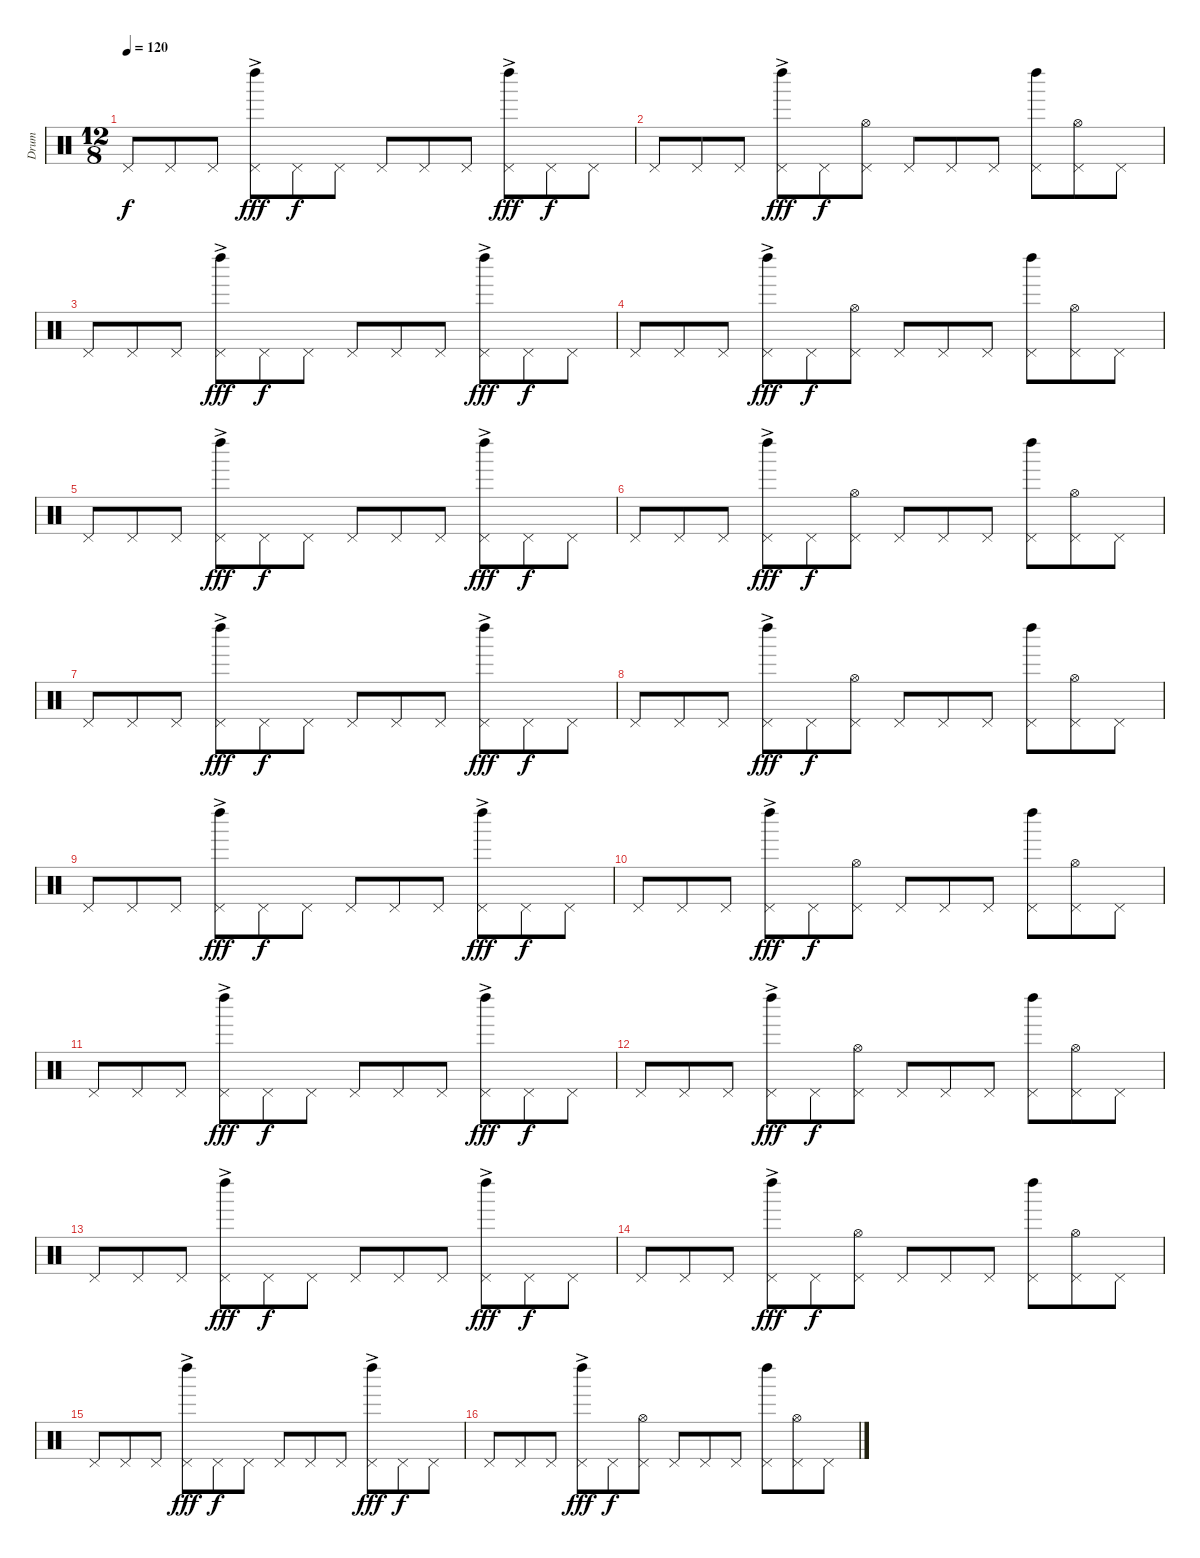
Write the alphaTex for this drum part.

\track ("Drum" "Drum") {instrument percussion}
\staff {score}
\articulation defaults
\ts (12 8)
\tempo 120
\clef neutral
\ks c "Pedal Hi-Hat (hit)".8{dy f} "Pedal Hi-Hat (hit)".8 "Pedal Hi-Hat (hit)".8
("Pedal Hi-Hat (hit)"{ac} "Left Maraca (hit)"{ac}).8{dy fff} "Pedal Hi-Hat (hit)".8{dy f} "Pedal Hi-Hat (hit)".8 "Pedal Hi-Hat (hit)".8 "Pedal Hi-Hat (hit)".8 "Pedal Hi-Hat (hit)".8 ("Pedal Hi-Hat (hit)"{ac} "Left Maraca (hit)"{ac}).8{dy fff} "Pedal Hi-Hat (hit)".8{dy f} "Pedal Hi-Hat (hit)".8 |
"Pedal Hi-Hat (hit)".8 "Pedal Hi-Hat (hit)".8 "Pedal Hi-Hat (hit)".8 ("Pedal Hi-Hat (hit)"{ac} "Left Maraca (hit)"{ac}).8{dy fff} "Pedal Hi-Hat (hit)".8{dy f} ("Pedal Hi-Hat (hit)" "Hi-Hat (open)").8 "Pedal Hi-Hat (hit)".8 "Pedal Hi-Hat (hit)".8 "Pedal Hi-Hat (hit)".8 ("Pedal Hi-Hat (hit)" "Left Maraca (hit)").8 ("Pedal Hi-Hat (hit)" "Hi-Hat (open)").8 "Pedal Hi-Hat (hit)".8 |
"Pedal Hi-Hat (hit)".8 "Pedal Hi-Hat (hit)".8 "Pedal Hi-Hat (hit)".8 ("Pedal Hi-Hat (hit)"{ac} "Left Maraca (hit)"{ac}).8{dy fff} "Pedal Hi-Hat (hit)".8{dy f} "Pedal Hi-Hat (hit)".8 "Pedal Hi-Hat (hit)".8 "Pedal Hi-Hat (hit)".8 "Pedal Hi-Hat (hit)".8 ("Pedal Hi-Hat (hit)"{ac} "Left Maraca (hit)"{ac}).8{dy fff} "Pedal Hi-Hat (hit)".8{dy f} "Pedal Hi-Hat (hit)".8 |
"Pedal Hi-Hat (hit)".8 "Pedal Hi-Hat (hit)".8 "Pedal Hi-Hat (hit)".8 ("Pedal Hi-Hat (hit)"{ac} "Left Maraca (hit)"{ac}).8{dy fff} "Pedal Hi-Hat (hit)".8{dy f} ("Pedal Hi-Hat (hit)" "Hi-Hat (open)").8 "Pedal Hi-Hat (hit)".8 "Pedal Hi-Hat (hit)".8 "Pedal Hi-Hat (hit)".8 ("Pedal Hi-Hat (hit)" "Left Maraca (hit)").8 ("Pedal Hi-Hat (hit)" "Hi-Hat (open)").8 "Pedal Hi-Hat (hit)".8 |
"Pedal Hi-Hat (hit)".8 "Pedal Hi-Hat (hit)".8 "Pedal Hi-Hat (hit)".8 ("Pedal Hi-Hat (hit)"{ac} "Left Maraca (hit)"{ac}).8{dy fff} "Pedal Hi-Hat (hit)".8{dy f} "Pedal Hi-Hat (hit)".8 "Pedal Hi-Hat (hit)".8 "Pedal Hi-Hat (hit)".8 "Pedal Hi-Hat (hit)".8 ("Pedal Hi-Hat (hit)"{ac} "Left Maraca (hit)"{ac}).8{dy fff} "Pedal Hi-Hat (hit)".8{dy f} "Pedal Hi-Hat (hit)".8 |
"Pedal Hi-Hat (hit)".8 "Pedal Hi-Hat (hit)".8 "Pedal Hi-Hat (hit)".8 ("Pedal Hi-Hat (hit)"{ac} "Left Maraca (hit)"{ac}).8{dy fff} "Pedal Hi-Hat (hit)".8{dy f} ("Pedal Hi-Hat (hit)" "Hi-Hat (open)").8 "Pedal Hi-Hat (hit)".8 "Pedal Hi-Hat (hit)".8 "Pedal Hi-Hat (hit)".8 ("Pedal Hi-Hat (hit)" "Left Maraca (hit)").8 ("Pedal Hi-Hat (hit)" "Hi-Hat (open)").8 "Pedal Hi-Hat (hit)".8 |
"Pedal Hi-Hat (hit)".8 "Pedal Hi-Hat (hit)".8 "Pedal Hi-Hat (hit)".8 ("Pedal Hi-Hat (hit)"{ac} "Left Maraca (hit)"{ac}).8{dy fff} "Pedal Hi-Hat (hit)".8{dy f} "Pedal Hi-Hat (hit)".8 "Pedal Hi-Hat (hit)".8 "Pedal Hi-Hat (hit)".8 "Pedal Hi-Hat (hit)".8 ("Pedal Hi-Hat (hit)"{ac} "Left Maraca (hit)"{ac}).8{dy fff} "Pedal Hi-Hat (hit)".8{dy f} "Pedal Hi-Hat (hit)".8 |
"Pedal Hi-Hat (hit)".8 "Pedal Hi-Hat (hit)".8 "Pedal Hi-Hat (hit)".8 ("Pedal Hi-Hat (hit)"{ac} "Left Maraca (hit)"{ac}).8{dy fff} "Pedal Hi-Hat (hit)".8{dy f} ("Pedal Hi-Hat (hit)" "Hi-Hat (open)").8 "Pedal Hi-Hat (hit)".8 "Pedal Hi-Hat (hit)".8 "Pedal Hi-Hat (hit)".8 ("Pedal Hi-Hat (hit)" "Left Maraca (hit)").8 ("Pedal Hi-Hat (hit)" "Hi-Hat (open)").8 "Pedal Hi-Hat (hit)".8 |
"Pedal Hi-Hat (hit)".8 "Pedal Hi-Hat (hit)".8 "Pedal Hi-Hat (hit)".8 ("Pedal Hi-Hat (hit)"{ac} "Left Maraca (hit)"{ac}).8{dy fff} "Pedal Hi-Hat (hit)".8{dy f} "Pedal Hi-Hat (hit)".8 "Pedal Hi-Hat (hit)".8 "Pedal Hi-Hat (hit)".8 "Pedal Hi-Hat (hit)".8 ("Pedal Hi-Hat (hit)"{ac} "Left Maraca (hit)"{ac}).8{dy fff} "Pedal Hi-Hat (hit)".8{dy f} "Pedal Hi-Hat (hit)".8 |
"Pedal Hi-Hat (hit)".8 "Pedal Hi-Hat (hit)".8 "Pedal Hi-Hat (hit)".8 ("Pedal Hi-Hat (hit)"{ac} "Left Maraca (hit)"{ac}).8{dy fff} "Pedal Hi-Hat (hit)".8{dy f} ("Pedal Hi-Hat (hit)" "Hi-Hat (open)").8 "Pedal Hi-Hat (hit)".8 "Pedal Hi-Hat (hit)".8 "Pedal Hi-Hat (hit)".8 ("Pedal Hi-Hat (hit)" "Left Maraca (hit)").8 ("Pedal Hi-Hat (hit)" "Hi-Hat (open)").8 "Pedal Hi-Hat (hit)".8 |
"Pedal Hi-Hat (hit)".8 "Pedal Hi-Hat (hit)".8 "Pedal Hi-Hat (hit)".8 ("Pedal Hi-Hat (hit)"{ac} "Left Maraca (hit)"{ac}).8{dy fff} "Pedal Hi-Hat (hit)".8{dy f} "Pedal Hi-Hat (hit)".8 "Pedal Hi-Hat (hit)".8 "Pedal Hi-Hat (hit)".8 "Pedal Hi-Hat (hit)".8 ("Pedal Hi-Hat (hit)"{ac} "Left Maraca (hit)"{ac}).8{dy fff} "Pedal Hi-Hat (hit)".8{dy f} "Pedal Hi-Hat (hit)".8 |
"Pedal Hi-Hat (hit)".8 "Pedal Hi-Hat (hit)".8 "Pedal Hi-Hat (hit)".8 ("Pedal Hi-Hat (hit)"{ac} "Left Maraca (hit)"{ac}).8{dy fff} "Pedal Hi-Hat (hit)".8{dy f} ("Pedal Hi-Hat (hit)" "Hi-Hat (open)").8 "Pedal Hi-Hat (hit)".8 "Pedal Hi-Hat (hit)".8 "Pedal Hi-Hat (hit)".8 ("Pedal Hi-Hat (hit)" "Left Maraca (hit)").8 ("Pedal Hi-Hat (hit)" "Hi-Hat (open)").8 "Pedal Hi-Hat (hit)".8 |
"Pedal Hi-Hat (hit)".8 "Pedal Hi-Hat (hit)".8 "Pedal Hi-Hat (hit)".8 ("Pedal Hi-Hat (hit)"{ac} "Left Maraca (hit)"{ac}).8{dy fff} "Pedal Hi-Hat (hit)".8{dy f} "Pedal Hi-Hat (hit)".8 "Pedal Hi-Hat (hit)".8 "Pedal Hi-Hat (hit)".8 "Pedal Hi-Hat (hit)".8 ("Pedal Hi-Hat (hit)"{ac} "Left Maraca (hit)"{ac}).8{dy fff} "Pedal Hi-Hat (hit)".8{dy f} "Pedal Hi-Hat (hit)".8 |
"Pedal Hi-Hat (hit)".8 "Pedal Hi-Hat (hit)".8 "Pedal Hi-Hat (hit)".8 ("Pedal Hi-Hat (hit)"{ac} "Left Maraca (hit)"{ac}).8{dy fff} "Pedal Hi-Hat (hit)".8{dy f} ("Pedal Hi-Hat (hit)" "Hi-Hat (open)").8 "Pedal Hi-Hat (hit)".8 "Pedal Hi-Hat (hit)".8 "Pedal Hi-Hat (hit)".8 ("Pedal Hi-Hat (hit)" "Left Maraca (hit)").8 ("Pedal Hi-Hat (hit)" "Hi-Hat (open)").8 "Pedal Hi-Hat (hit)".8 |
"Pedal Hi-Hat (hit)".8 "Pedal Hi-Hat (hit)".8 "Pedal Hi-Hat (hit)".8 ("Pedal Hi-Hat (hit)"{ac} "Left Maraca (hit)"{ac}).8{dy fff} "Pedal Hi-Hat (hit)".8{dy f} "Pedal Hi-Hat (hit)".8 "Pedal Hi-Hat (hit)".8 "Pedal Hi-Hat (hit)".8 "Pedal Hi-Hat (hit)".8 ("Pedal Hi-Hat (hit)"{ac} "Left Maraca (hit)"{ac}).8{dy fff} "Pedal Hi-Hat (hit)".8{dy f} "Pedal Hi-Hat (hit)".8 |
"Pedal Hi-Hat (hit)".8 "Pedal Hi-Hat (hit)".8 "Pedal Hi-Hat (hit)".8 ("Pedal Hi-Hat (hit)"{ac} "Left Maraca (hit)"{ac}).8{dy fff} "Pedal Hi-Hat (hit)".8{dy f} ("Pedal Hi-Hat (hit)" "Hi-Hat (open)").8 "Pedal Hi-Hat (hit)".8 "Pedal Hi-Hat (hit)".8 "Pedal Hi-Hat (hit)".8 ("Pedal Hi-Hat (hit)" "Left Maraca (hit)").8 ("Pedal Hi-Hat (hit)" "Hi-Hat (open)").8 "Pedal Hi-Hat (hit)".8
